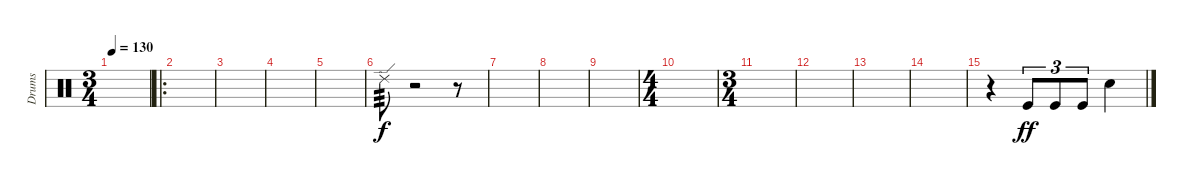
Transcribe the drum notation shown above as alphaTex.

\track ("Drums" "Drums") {instrument percussion}
\staff {score}
\articulation defaults
\ts (3 4)
\tempo 130
\clef neutral
\ks c
|
\ro
|
|
|
|
"Ride (edge) 2".8{tp 3} r.2 r.8 |
|
|
|
\ts (4 4)
|
\ts (3 4)
|
|
|
|
r.4 "Kick (hit)".8{tu (3 2) dy ff} "Kick (hit)".8{tu (3 2)} "Kick (hit)".8{tu (3 2)} "Snare (hit) 2".4
